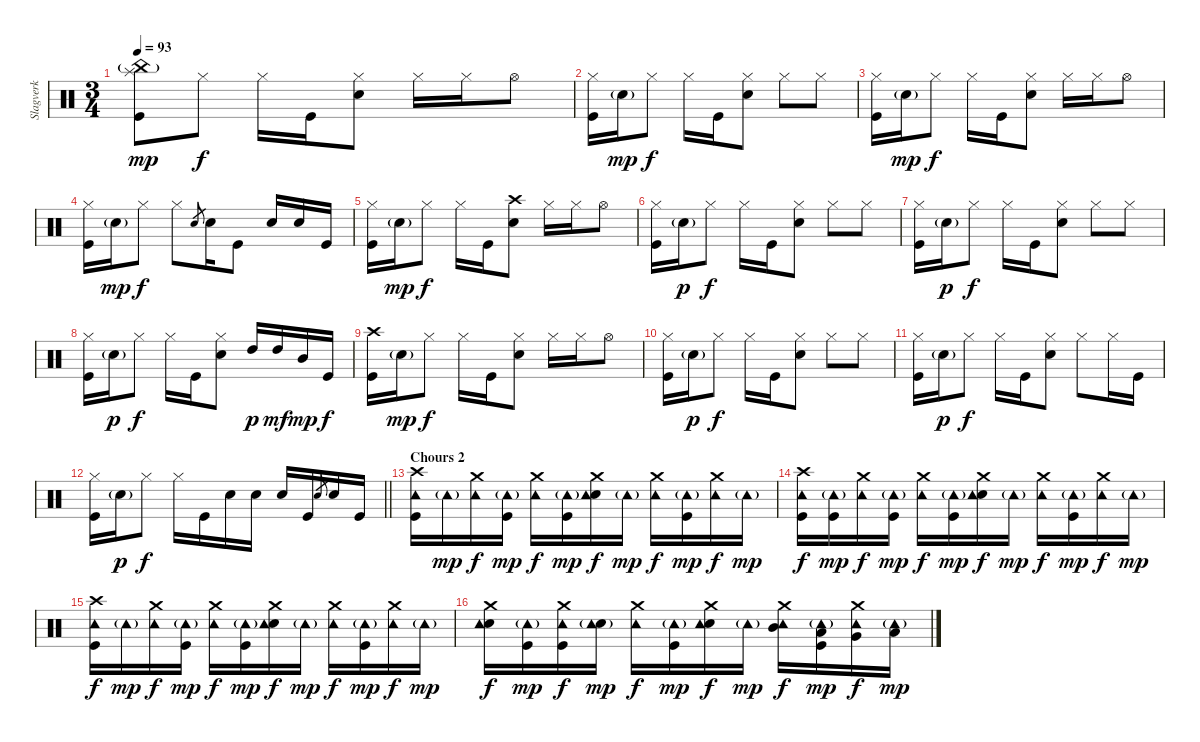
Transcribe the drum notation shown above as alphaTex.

\track ("Slagverk" "Slagverk") {instrument percussion}
\staff {score}
\articulation defaults
\ts (3 4)
\tempo 93
\clef neutral
\ks c
("Splash (hit)" "Kick (hit)" "China (hit)"{g}).8{dy mp} "Hi-Hat (closed)".8{dy f} "Hi-Hat (closed)".16 "Kick (hit)".16 ("Hi-Hat (closed)" "Electric Snare (hit)").8 "Hi-Hat (closed)".16 "Hi-Hat (closed)".16 "Hi-Hat (open)".8 |
("Hi-Hat (closed)" "Kick (hit)").16 "Electric Snare (hit)"{g}.16{dy mp} "Hi-Hat (closed)".8{dy f} "Hi-Hat (closed)".16 "Kick (hit)".16 ("Hi-Hat (closed)" "Electric Snare (hit)").8 "Hi-Hat (closed)".8 "Hi-Hat (closed)".8 |
("Hi-Hat (closed)" "Kick (hit)").16 "Electric Snare (hit)"{g}.16{dy mp} "Hi-Hat (closed)".8{dy f} "Hi-Hat (closed)".16 "Kick (hit)".16 ("Hi-Hat (closed)" "Electric Snare (hit)").8 "Hi-Hat (closed)".16 "Hi-Hat (closed)".16 "Hi-Hat (open)".8 |
("Hi-Hat (closed)" "Kick (hit)").16 "Electric Snare (hit)"{g}.16{dy mp} "Hi-Hat (closed)".8{dy f} "Hi-Hat (closed)".8 "Electric Snare (hit)".8{gr} "Electric Snare (hit)".16 "Kick (hit)".8 "Electric Snare (hit)".16 "Electric Snare (hit)".16 "Kick (hit)".16 |
("Hi-Hat (closed)" "Kick (hit)").16 "Electric Snare (hit)"{g}.16{dy mp} "Hi-Hat (closed)".8{dy f} "Hi-Hat (closed)".16 "Kick (hit)".16 ("Crash high (hit)" "Electric Snare (hit)").8 "Hi-Hat (closed)".16 "Hi-Hat (closed)".16 "Hi-Hat (open)".8 |
("Hi-Hat (closed)" "Kick (hit)").16 "Electric Snare (hit)"{g}.16{dy p} "Hi-Hat (closed)".8{dy f} "Hi-Hat (closed)".16 "Kick (hit)".16 ("Hi-Hat (closed)" "Electric Snare (hit)").8 "Hi-Hat (closed)".8 "Hi-Hat (closed)".8 |
("Hi-Hat (closed)" "Kick (hit)").16 "Electric Snare (hit)"{g}.16{dy p} "Hi-Hat (closed)".8{dy f} "Hi-Hat (closed)".16 "Kick (hit)".16 ("Hi-Hat (closed)" "Electric Snare (hit)").8 "Hi-Hat (closed)".8 "Hi-Hat (closed)".8 |
("Hi-Hat (closed)" "Kick (hit)").16 "Electric Snare (hit)"{g}.16{dy p} "Hi-Hat (closed)".8{dy f} "Hi-Hat (closed)".16 "Kick (hit)".16 ("Hi-Hat (closed)" "Electric Snare (hit)").8 "High Tom (hit)".16{dy p} "High Tom (hit)".16{dy mf} "Mid Tom (hit)".16{dy mp} "Kick (hit)".16{dy f} |
("Crash high (hit)" "Kick (hit)").16 "Electric Snare (hit)"{g}.16{dy mp} "Hi-Hat (closed)".8{dy f} "Hi-Hat (closed)".16 "Kick (hit)".16 ("Hi-Hat (closed)" "Electric Snare (hit)").8 "Hi-Hat (closed)".16 "Hi-Hat (closed)".16 "Hi-Hat (open)".8 |
("Hi-Hat (closed)" "Kick (hit)").16 "Electric Snare (hit)"{g}.16{dy p} "Hi-Hat (closed)".8{dy f} "Hi-Hat (closed)".16 "Kick (hit)".16 ("Hi-Hat (closed)" "Electric Snare (hit)").8 "Hi-Hat (closed)".8 "Hi-Hat (closed)".8 |
("Hi-Hat (closed)" "Kick (hit)").16 "Electric Snare (hit)"{g}.16{dy p} "Hi-Hat (closed)".8{dy f} "Hi-Hat (closed)".16 "Kick (hit)".16 ("Hi-Hat (closed)" "Electric Snare (hit)").8 "Hi-Hat (closed)".8 "Hi-Hat (closed)".16 "Kick (hit)".16 |
\barLineRight lightlight
("Hi-Hat (closed)" "Kick (hit)").16 "Electric Snare (hit)"{g}.16{dy p} "Hi-Hat (closed)".8{dy f} "Hi-Hat (closed)".16 "Kick (hit)".16 "Electric Snare (hit)".16 "Electric Snare (hit)".16 "Electric Snare (hit)".16 "Kick (hit)".16 "Electric Snare (hit)".8{gr} "Electric Snare (hit)".16 "Kick (hit)".16 |
\section ("" "Chours 2")
("Crash high (hit)" "Tambourine (hit)" "Kick (hit)").16 "Tambourine (hit)"{g}.16{dy mp} ("Crash medium (hit)" "Tambourine (hit)").16{dy f} ("Tambourine (hit)"{g} "Kick (hit)").16{dy mp} ("Crash medium (hit)" "Tambourine (hit)").16{dy f} ("Kick (hit)" "Tambourine (hit)"{g}).16{dy mp} ("Crash medium (hit)" "Electric Snare (hit)" "Tambourine (hit)").16{dy f} "Tambourine (hit)"{g}.16{dy mp} ("Crash medium (hit)" "Tambourine (hit)").16{dy f} ("Kick (hit)" "Tambourine (hit)"{g}).16{dy mp} ("Crash medium (hit)" "Tambourine (hit)").16{dy f} "Tambourine (hit)"{g}.16{dy mp} |
("Crash high (hit)" "Kick (hit)" "Tambourine (hit)").16{dy f} ("Kick (hit)" "Tambourine (hit)"{g}).16{dy mp} ("Crash medium (hit)" "Tambourine (hit)").16{dy f} ("Kick (hit)" "Tambourine (hit)"{g}).16{dy mp} ("Crash medium (hit)" "Tambourine (hit)").16{dy f} ("Kick (hit)" "Tambourine (hit)"{g}).16{dy mp} ("Crash medium (hit)" "Electric Snare (hit)" "Tambourine (hit)").16{dy f} "Tambourine (hit)"{g}.16{dy mp} ("Crash medium (hit)" "Tambourine (hit)").16{dy f} ("Kick (hit)" "Tambourine (hit)"{g}).16{dy mp} ("Crash medium (hit)" "Tambourine (hit)").16{dy f} "Tambourine (hit)"{g}.16{dy mp} |
("Crash high (hit)" "Kick (hit)" "Tambourine (hit)").16{dy f} "Tambourine (hit)"{g}.16{dy mp} ("Crash medium (hit)" "Tambourine (hit)").16{dy f} ("Kick (hit)" "Tambourine (hit)"{g}).16{dy mp} ("Crash medium (hit)" "Tambourine (hit)").16{dy f} ("Kick (hit)" "Tambourine (hit)"{g}).16{dy mp} ("Crash medium (hit)" "Electric Snare (hit)" "Tambourine (hit)").16{dy f} "Tambourine (hit)"{g}.16{dy mp} ("Crash medium (hit)" "Tambourine (hit)").16{dy f} ("Kick (hit)" "Tambourine (hit)"{g}).16{dy mp} ("Crash medium (hit)" "Tambourine (hit)").16{dy f} "Tambourine (hit)"{g}.16{dy mp} |
("Crash medium (hit)" "Electric Snare (hit)" "Tambourine (hit)").16{dy f} ("Kick (hit)" "Tambourine (hit)"{g}).16{dy mp} ("Crash medium (hit)" "Kick (hit)" "Tambourine (hit)").16{dy f} ("Electric Snare (hit)" "Tambourine (hit)"{g}).16{dy mp} ("Crash medium (hit)" "Tambourine (hit)").16{dy f} ("Kick (hit)" "Tambourine (hit)"{g}).16{dy mp} ("Crash medium (hit)" "Electric Snare (hit)" "Tambourine (hit)").16{dy f} "Tambourine (hit)"{g}.16{dy mp} ("Crash medium (hit)" "Mid Tom (hit)" "Tambourine (hit)").16{dy f} ("Kick (hit)" "Low Tom (hit)" "Tambourine (hit)"{g}).16{dy mp} ("Crash medium (hit)" "Very Low Tom (hit)" "Tambourine (hit)").16{dy f} ("Low Floor Tom (hit)" "Tambourine (hit)"{g}).16{dy mp}
